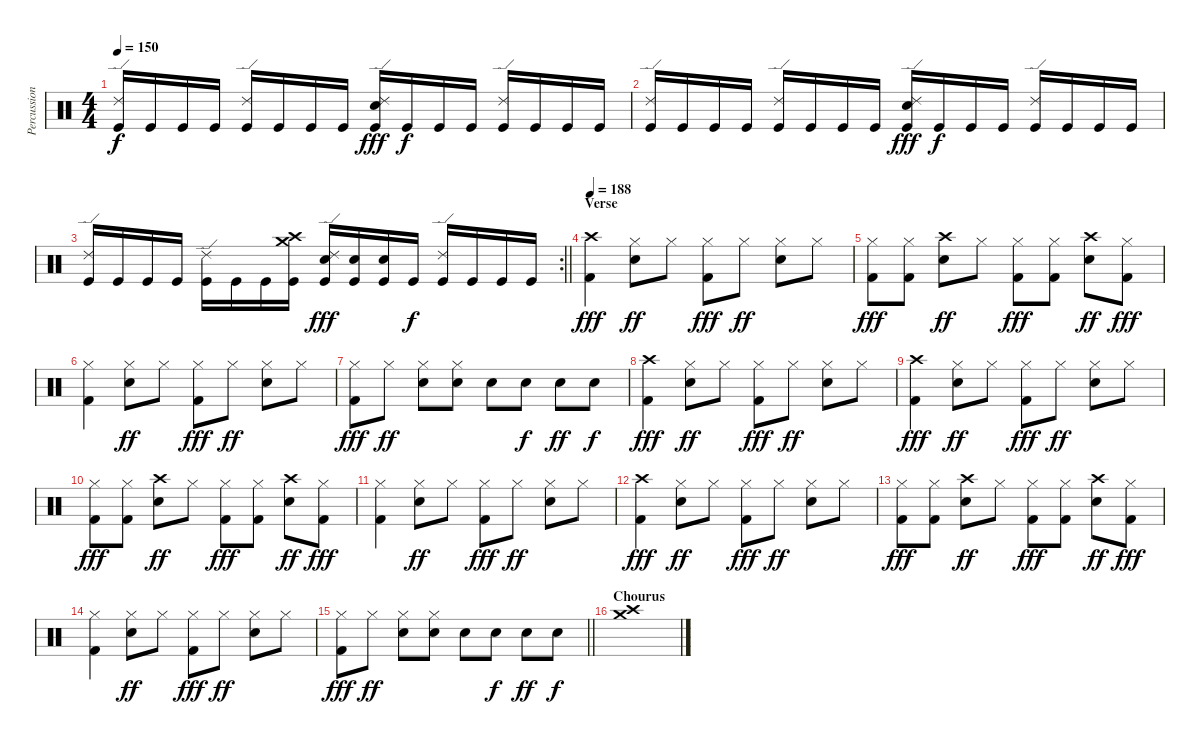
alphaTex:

\track ("Percussion" "Percussion") {instrument percussion}
\staff {score}
\articulation defaults
\ts (4 4)
\tempo 150
\clef neutral
\ks c
("Ride (edge) 2" "Kick (hit)").16{dy f} "Kick (hit)".16 "Kick (hit)".16 "Kick (hit)".16 ("Ride (edge) 2" "Kick (hit)").16 "Kick (hit)".16 "Kick (hit)".16 "Kick (hit)".16 ("Ride (edge) 2" "Snare (hit) 2" "Kick (hit)").16{dy fff} "Kick (hit)".16{dy f} "Kick (hit)".16 "Kick (hit)".16 ("Ride (edge) 2" "Kick (hit)").16 "Kick (hit)".16 "Kick (hit)".16 "Kick (hit)".16 |
("Ride (edge) 2" "Kick (hit)").16 "Kick (hit)".16 "Kick (hit)".16 "Kick (hit)".16 ("Ride (edge) 2" "Kick (hit)").16 "Kick (hit)".16 "Kick (hit)".16 "Kick (hit)".16 ("Ride (edge) 2" "Snare (hit) 2" "Kick (hit)").16{dy fff} "Kick (hit)".16{dy f} "Kick (hit)".16 "Kick (hit)".16 ("Ride (edge) 2" "Kick (hit)").16 "Kick (hit)".16 "Kick (hit)".16 "Kick (hit)".16 |
\rc 2
\barLineRight lightlight
("Ride (edge) 2" "Kick (hit)").16 "Kick (hit)".16 "Kick (hit)".16 "Kick (hit)".16 ("Ride (edge) 2" "Kick (hit)").16 "Kick (hit)".16 "Kick (hit)".16 ("Crash medium (hit)" "Crash high (hit)" "Kick (hit)").16 ("Ride (edge) 2" "Snare (hit) 2" "Kick (hit)").16{dy fff} ("Snare (hit) 2" "Kick (hit)").16 ("Snare (hit) 2" "Kick (hit)").16 "Kick (hit)".16{dy f} ("Ride (edge) 2" "Kick (hit)").16 "Kick (hit)".16 "Kick (hit)".16 "Kick (hit)".16 |
\section ("" "Verse")
\tempo 188
("Crash high (hit)" "Kick (hit) 2").4{dy fff} ("Hi-Hat (closed)" "Snare (hit) 2").8{dy ff} "Hi-Hat (closed)".8 ("Hi-Hat (closed)" "Kick (hit) 2").8{dy fff} "Hi-Hat (closed)".8{dy ff} ("Hi-Hat (closed)" "Snare (hit) 2").8 "Hi-Hat (closed)".8 |
("Hi-Hat (closed)" "Kick (hit) 2").8{dy fff} ("Hi-Hat (closed)" "Kick (hit) 2").8 ("Crash high (hit)" "Snare (hit) 2").8{dy ff} "Hi-Hat (closed)".8 ("Hi-Hat (closed)" "Kick (hit) 2").8{dy fff} ("Hi-Hat (closed)" "Kick (hit) 2").8 ("Crash high (hit)" "Snare (hit) 2").8{dy ff} ("Hi-Hat (closed)" "Kick (hit) 2").8{dy fff} |
("Hi-Hat (closed)" "Kick (hit) 2").4 ("Hi-Hat (closed)" "Snare (hit) 2").8{dy ff} "Hi-Hat (closed)".8 ("Hi-Hat (closed)" "Kick (hit) 2").8{dy fff} "Hi-Hat (closed)".8{dy ff} ("Hi-Hat (closed)" "Snare (hit) 2").8 "Hi-Hat (closed)".8 |
("Hi-Hat (closed)" "Kick (hit) 2").8{dy fff} "Hi-Hat (closed)".8{dy ff} ("Hi-Hat (closed)" "Snare (hit) 2").8 ("Hi-Hat (closed)" "Snare (hit) 2").8 "Snare (hit) 2".8 "Snare (hit) 2".8{dy f} "Snare (hit) 2".8{dy ff} "Snare (hit) 2".8{dy f} |
("Crash high (hit)" "Kick (hit) 2").4{dy fff} ("Hi-Hat (closed)" "Snare (hit) 2").8{dy ff} "Hi-Hat (closed)".8 ("Hi-Hat (closed)" "Kick (hit) 2").8{dy fff} "Hi-Hat (closed)".8{dy ff} ("Hi-Hat (closed)" "Snare (hit) 2").8 "Hi-Hat (closed)".8 |
("Crash high (hit)" "Kick (hit) 2").4{dy fff} ("Hi-Hat (closed)" "Snare (hit) 2").8{dy ff} "Hi-Hat (closed)".8 ("Hi-Hat (closed)" "Kick (hit) 2").8{dy fff} "Hi-Hat (closed)".8{dy ff} ("Hi-Hat (closed)" "Snare (hit) 2").8 "Hi-Hat (closed)".8 |
("Hi-Hat (closed)" "Kick (hit) 2").8{dy fff} ("Hi-Hat (closed)" "Kick (hit) 2").8 ("Crash high (hit)" "Snare (hit) 2").8{dy ff} "Hi-Hat (closed)".8 ("Hi-Hat (closed)" "Kick (hit) 2").8{dy fff} ("Hi-Hat (closed)" "Kick (hit) 2").8 ("Crash high (hit)" "Snare (hit) 2").8{dy ff} ("Hi-Hat (closed)" "Kick (hit) 2").8{dy fff} |
("Hi-Hat (closed)" "Kick (hit) 2").4 ("Hi-Hat (closed)" "Snare (hit) 2").8{dy ff} "Hi-Hat (closed)".8 ("Hi-Hat (closed)" "Kick (hit) 2").8{dy fff} "Hi-Hat (closed)".8{dy ff} ("Hi-Hat (closed)" "Snare (hit) 2").8 "Hi-Hat (closed)".8 |
("Crash high (hit)" "Kick (hit) 2").4{dy fff} ("Hi-Hat (closed)" "Snare (hit) 2").8{dy ff} "Hi-Hat (closed)".8 ("Hi-Hat (closed)" "Kick (hit) 2").8{dy fff} "Hi-Hat (closed)".8{dy ff} ("Hi-Hat (closed)" "Snare (hit) 2").8 "Hi-Hat (closed)".8 |
("Hi-Hat (closed)" "Kick (hit) 2").8{dy fff} ("Hi-Hat (closed)" "Kick (hit) 2").8 ("Crash high (hit)" "Snare (hit) 2").8{dy ff} "Hi-Hat (closed)".8 ("Hi-Hat (closed)" "Kick (hit) 2").8{dy fff} ("Hi-Hat (closed)" "Kick (hit) 2").8 ("Crash high (hit)" "Snare (hit) 2").8{dy ff} ("Hi-Hat (closed)" "Kick (hit) 2").8{dy fff} |
("Hi-Hat (closed)" "Kick (hit) 2").4 ("Hi-Hat (closed)" "Snare (hit) 2").8{dy ff} "Hi-Hat (closed)".8 ("Hi-Hat (closed)" "Kick (hit) 2").8{dy fff} "Hi-Hat (closed)".8{dy ff} ("Hi-Hat (closed)" "Snare (hit) 2").8 "Hi-Hat (closed)".8 |
\barLineRight lightlight
("Hi-Hat (closed)" "Kick (hit) 2").8{dy fff} "Hi-Hat (closed)".8{dy ff} ("Hi-Hat (closed)" "Snare (hit) 2").8 ("Hi-Hat (closed)" "Snare (hit) 2").8 "Snare (hit) 2".8 "Snare (hit) 2".8{dy f} "Snare (hit) 2".8{dy ff} "Snare (hit) 2".8{dy f} |
\section ("" "Chourus")
("Crash high (hit)" "Crash medium (hit)").1
